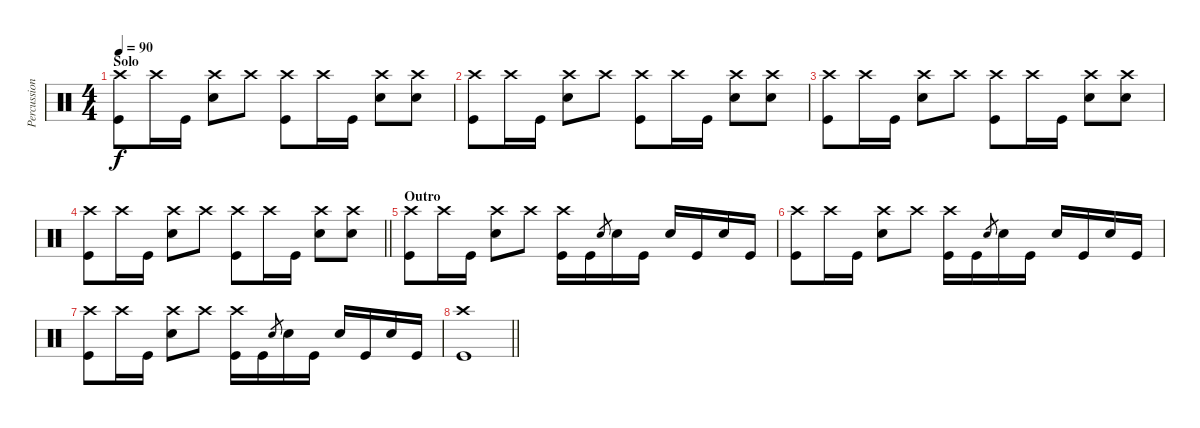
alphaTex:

\track ("Percussion" "Percussion") {instrument percussion}
\staff {score}
\articulation defaults
\ts (4 4)
\section ("" "Solo")
\tempo 90
\clef neutral
\ks c
("Crash high (hit)" "Kick (hit)").8{dy f} "Crash high (hit)".16 "Kick (hit)".16 ("Crash high (hit)" "Snare (hit) 2").8 "Crash high (hit)".8 ("Crash high (hit)" "Kick (hit)").8 "Crash high (hit)".16 "Kick (hit)".16 ("Crash high (hit)" "Snare (hit) 2").8 ("Crash high (hit)" "Snare (hit) 2").8 |
("Crash high (hit)" "Kick (hit)").8 "Crash high (hit)".16 "Kick (hit)".16 ("Crash high (hit)" "Snare (hit) 2").8 "Crash high (hit)".8 ("Crash high (hit)" "Kick (hit)").8 "Crash high (hit)".16 "Kick (hit)".16 ("Crash high (hit)" "Snare (hit) 2").8 ("Crash high (hit)" "Snare (hit) 2").8 |
("Crash high (hit)" "Kick (hit)").8 "Crash high (hit)".16 "Kick (hit)".16 ("Crash high (hit)" "Snare (hit) 2").8 "Crash high (hit)".8 ("Crash high (hit)" "Kick (hit)").8 "Crash high (hit)".16 "Kick (hit)".16 ("Crash high (hit)" "Snare (hit) 2").8 ("Crash high (hit)" "Snare (hit) 2").8 |
\barLineRight lightlight
("Crash high (hit)" "Kick (hit)").8 "Crash high (hit)".16 "Kick (hit)".16 ("Crash high (hit)" "Snare (hit) 2").8 "Crash high (hit)".8 ("Crash high (hit)" "Kick (hit)").8 "Crash high (hit)".16 "Kick (hit)".16 ("Crash high (hit)" "Snare (hit) 2").8 ("Crash high (hit)" "Snare (hit) 2").8 |
\section ("" "Outro")
("Crash high (hit)" "Kick (hit)").8 "Crash high (hit)".16 "Kick (hit)".16 ("Crash high (hit)" "Snare (hit) 2").8 "Crash high (hit)".8 ("Crash high (hit)" "Kick (hit)").16 "Kick (hit)".16 "Snare (hit) 2".8{gr} "Snare (hit) 2".16 "Kick (hit)".16 "Snare (hit) 2".16 "Kick (hit)".16 "Snare (hit) 2".16 "Kick (hit)".16 |
("Crash high (hit)" "Kick (hit)").8 "Crash high (hit)".16 "Kick (hit)".16 ("Crash high (hit)" "Snare (hit) 2").8 "Crash high (hit)".8 ("Crash high (hit)" "Kick (hit)").16 "Kick (hit)".16 "Snare (hit) 2".8{gr} "Snare (hit) 2".16 "Kick (hit)".16 "Snare (hit) 2".16 "Kick (hit)".16 "Snare (hit) 2".16 "Kick (hit)".16 |
("Crash high (hit)" "Kick (hit)").8 "Crash high (hit)".16 "Kick (hit)".16 ("Crash high (hit)" "Snare (hit) 2").8 "Crash high (hit)".8 ("Crash high (hit)" "Kick (hit)").16 "Kick (hit)".16 "Snare (hit) 2".8{gr} "Snare (hit) 2".16 "Kick (hit)".16 "Snare (hit) 2".16 "Kick (hit)".16 "Snare (hit) 2".16 "Kick (hit)".16 |
\barLineRight lightlight
("Crash high (hit)" "Kick (hit)").1
